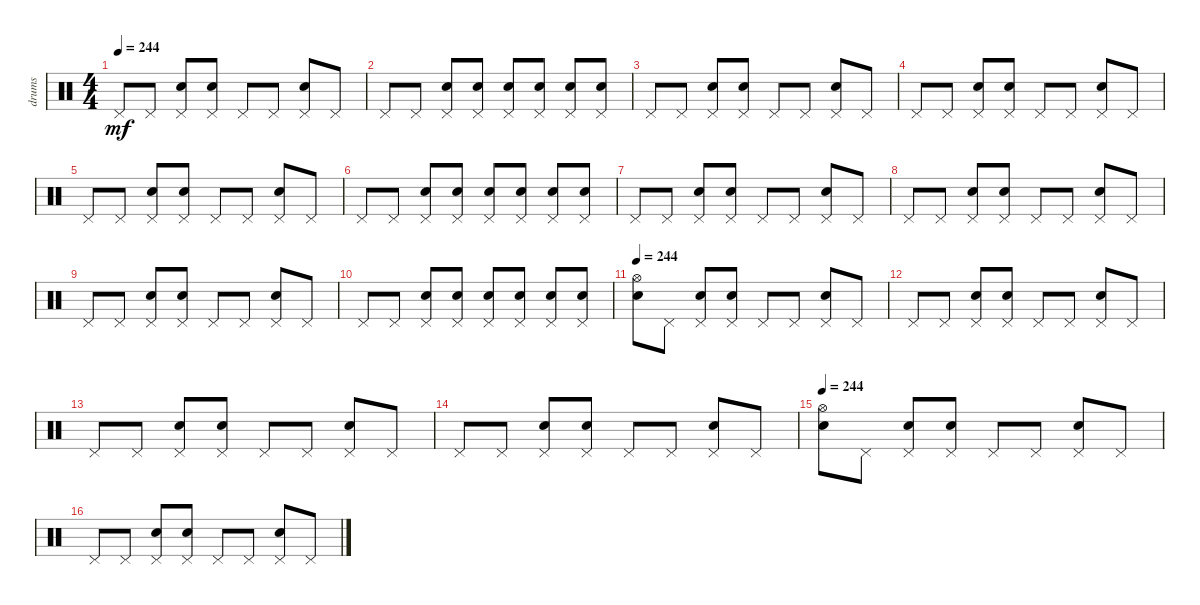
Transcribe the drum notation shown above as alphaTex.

\track ("drums" "drums") {instrument percussion}
\staff {score}
\articulation defaults
\ts (4 4)
\tempo 244
\clef neutral
\ks c "Pedal Hi-Hat (hit)".8{dy mf} "Pedal Hi-Hat (hit)".8
("Pedal Hi-Hat (hit)" "Snare (hit) 2").8 ("Pedal Hi-Hat (hit)" "Snare (hit) 2").8 "Pedal Hi-Hat (hit)".8 "Pedal Hi-Hat (hit)".8 ("Pedal Hi-Hat (hit)" "Snare (hit) 2").8 "Pedal Hi-Hat (hit)".8 |
"Pedal Hi-Hat (hit)".8 "Pedal Hi-Hat (hit)".8 ("Pedal Hi-Hat (hit)" "Snare (hit) 2").8 ("Pedal Hi-Hat (hit)" "Snare (hit) 2").8 ("Pedal Hi-Hat (hit)" "Snare (hit) 2").8 ("Pedal Hi-Hat (hit)" "Snare (hit) 2").8 ("Pedal Hi-Hat (hit)" "Snare (hit) 2").8 ("Pedal Hi-Hat (hit)" "Snare (hit) 2").8 |
"Pedal Hi-Hat (hit)".8 "Pedal Hi-Hat (hit)".8 ("Pedal Hi-Hat (hit)" "Snare (hit) 2").8 ("Pedal Hi-Hat (hit)" "Snare (hit) 2").8 "Pedal Hi-Hat (hit)".8 "Pedal Hi-Hat (hit)".8 ("Pedal Hi-Hat (hit)" "Snare (hit) 2").8 "Pedal Hi-Hat (hit)".8 |
"Pedal Hi-Hat (hit)".8 "Pedal Hi-Hat (hit)".8 ("Pedal Hi-Hat (hit)" "Snare (hit) 2").8 ("Pedal Hi-Hat (hit)" "Snare (hit) 2").8 "Pedal Hi-Hat (hit)".8 "Pedal Hi-Hat (hit)".8 ("Pedal Hi-Hat (hit)" "Snare (hit) 2").8 "Pedal Hi-Hat (hit)".8 |
"Pedal Hi-Hat (hit)".8 "Pedal Hi-Hat (hit)".8 ("Pedal Hi-Hat (hit)" "Snare (hit) 2").8 ("Pedal Hi-Hat (hit)" "Snare (hit) 2").8 "Pedal Hi-Hat (hit)".8 "Pedal Hi-Hat (hit)".8 ("Pedal Hi-Hat (hit)" "Snare (hit) 2").8 "Pedal Hi-Hat (hit)".8 |
"Pedal Hi-Hat (hit)".8 "Pedal Hi-Hat (hit)".8 ("Pedal Hi-Hat (hit)" "Snare (hit) 2").8 ("Pedal Hi-Hat (hit)" "Snare (hit) 2").8 ("Pedal Hi-Hat (hit)" "Snare (hit) 2").8 ("Pedal Hi-Hat (hit)" "Snare (hit) 2").8 ("Pedal Hi-Hat (hit)" "Snare (hit) 2").8 ("Pedal Hi-Hat (hit)" "Snare (hit) 2").8 |
"Pedal Hi-Hat (hit)".8 "Pedal Hi-Hat (hit)".8 ("Pedal Hi-Hat (hit)" "Snare (hit) 2").8 ("Pedal Hi-Hat (hit)" "Snare (hit) 2").8 "Pedal Hi-Hat (hit)".8 "Pedal Hi-Hat (hit)".8 ("Pedal Hi-Hat (hit)" "Snare (hit) 2").8 "Pedal Hi-Hat (hit)".8 |
"Pedal Hi-Hat (hit)".8 "Pedal Hi-Hat (hit)".8 ("Pedal Hi-Hat (hit)" "Snare (hit) 2").8 ("Pedal Hi-Hat (hit)" "Snare (hit) 2").8 "Pedal Hi-Hat (hit)".8 "Pedal Hi-Hat (hit)".8 ("Pedal Hi-Hat (hit)" "Snare (hit) 2").8 "Pedal Hi-Hat (hit)".8 |
"Pedal Hi-Hat (hit)".8 "Pedal Hi-Hat (hit)".8 ("Pedal Hi-Hat (hit)" "Snare (hit) 2").8 ("Pedal Hi-Hat (hit)" "Snare (hit) 2").8 "Pedal Hi-Hat (hit)".8 "Pedal Hi-Hat (hit)".8 ("Pedal Hi-Hat (hit)" "Snare (hit) 2").8 "Pedal Hi-Hat (hit)".8 |
"Pedal Hi-Hat (hit)".8 "Pedal Hi-Hat (hit)".8 ("Pedal Hi-Hat (hit)" "Snare (hit) 2").8 ("Pedal Hi-Hat (hit)" "Snare (hit) 2").8 ("Pedal Hi-Hat (hit)" "Snare (hit) 2").8 ("Pedal Hi-Hat (hit)" "Snare (hit) 2").8 ("Pedal Hi-Hat (hit)" "Snare (hit) 2").8 ("Pedal Hi-Hat (hit)" "Snare (hit) 2").8 |
\tempo 244
("Hi-Hat (open)" "Snare (hit) 2").8 "Pedal Hi-Hat (hit)".8 ("Pedal Hi-Hat (hit)" "Snare (hit) 2").8 ("Pedal Hi-Hat (hit)" "Snare (hit) 2").8 "Pedal Hi-Hat (hit)".8 "Pedal Hi-Hat (hit)".8 ("Pedal Hi-Hat (hit)" "Snare (hit) 2").8 "Pedal Hi-Hat (hit)".8 |
"Pedal Hi-Hat (hit)".8 "Pedal Hi-Hat (hit)".8 ("Pedal Hi-Hat (hit)" "Snare (hit) 2").8 ("Pedal Hi-Hat (hit)" "Snare (hit) 2").8 "Pedal Hi-Hat (hit)".8 "Pedal Hi-Hat (hit)".8 ("Pedal Hi-Hat (hit)" "Snare (hit) 2").8 "Pedal Hi-Hat (hit)".8 |
"Pedal Hi-Hat (hit)".8 "Pedal Hi-Hat (hit)".8 ("Pedal Hi-Hat (hit)" "Snare (hit) 2").8 ("Pedal Hi-Hat (hit)" "Snare (hit) 2").8 "Pedal Hi-Hat (hit)".8 "Pedal Hi-Hat (hit)".8 ("Pedal Hi-Hat (hit)" "Snare (hit) 2").8 "Pedal Hi-Hat (hit)".8 |
"Pedal Hi-Hat (hit)".8 "Pedal Hi-Hat (hit)".8 ("Pedal Hi-Hat (hit)" "Snare (hit) 2").8 ("Pedal Hi-Hat (hit)" "Snare (hit) 2").8 "Pedal Hi-Hat (hit)".8 "Pedal Hi-Hat (hit)".8 ("Pedal Hi-Hat (hit)" "Snare (hit) 2").8 "Pedal Hi-Hat (hit)".8 |
\tempo 244
("Hi-Hat (open)" "Snare (hit) 2").8 "Pedal Hi-Hat (hit)".8 ("Pedal Hi-Hat (hit)" "Snare (hit) 2").8 ("Pedal Hi-Hat (hit)" "Snare (hit) 2").8 "Pedal Hi-Hat (hit)".8 "Pedal Hi-Hat (hit)".8 ("Pedal Hi-Hat (hit)" "Snare (hit) 2").8 "Pedal Hi-Hat (hit)".8 |
"Pedal Hi-Hat (hit)".8 "Pedal Hi-Hat (hit)".8 ("Pedal Hi-Hat (hit)" "Snare (hit) 2").8 ("Pedal Hi-Hat (hit)" "Snare (hit) 2").8 "Pedal Hi-Hat (hit)".8 "Pedal Hi-Hat (hit)".8 ("Pedal Hi-Hat (hit)" "Snare (hit) 2").8 "Pedal Hi-Hat (hit)".8
